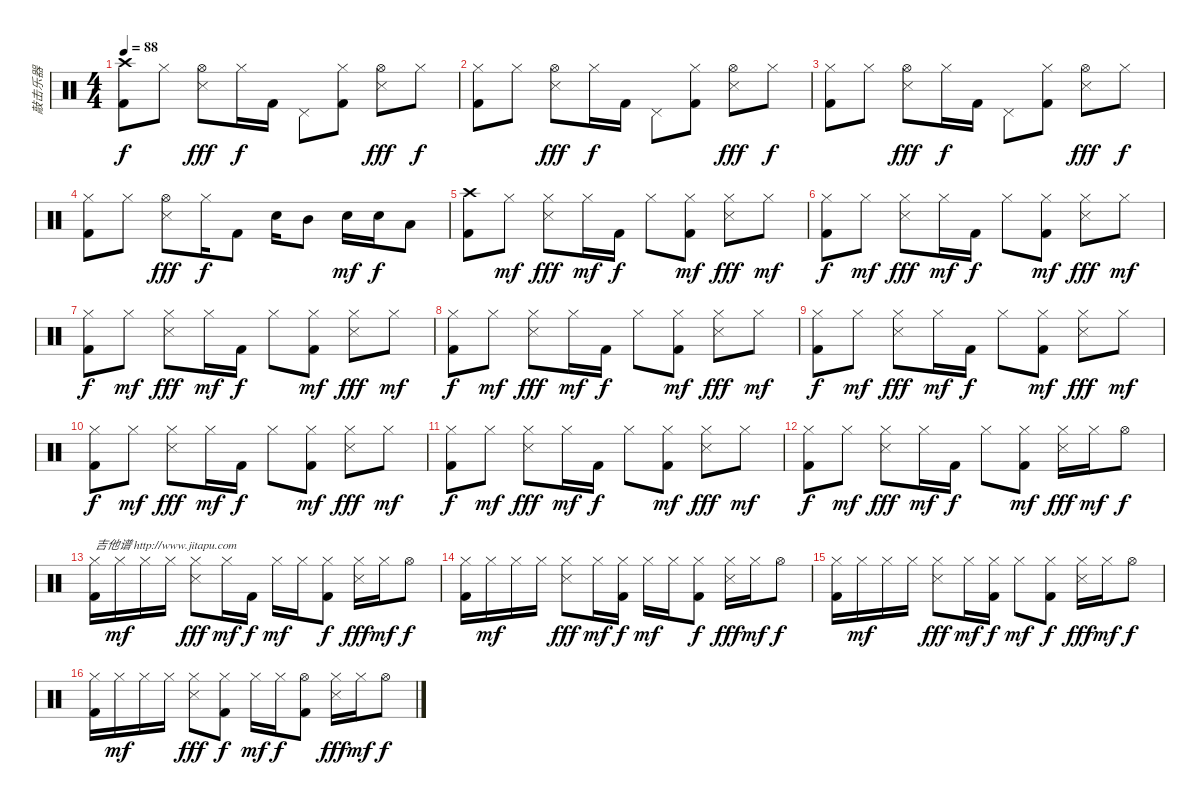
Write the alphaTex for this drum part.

\track ("敲击乐器" "敲击乐器") {instrument percussion}
\staff {score}
\articulation defaults
\ts (4 4)
\tempo 88
\clef neutral
\ks c
("Crash high (hit)" "Kick (hit) 2").8{dy f} "Hi-Hat (closed)".8 ("Hi-Hat (open)" "Snare (side stick) 3").8{dy fff} "Hi-Hat (closed)".16{dy f} "Kick (hit) 2".16 "Pedal Hi-Hat (hit)".8 ("Hi-Hat (closed)" "Kick (hit) 2").8 ("Hi-Hat (open)" "Snare (side stick) 3").8{dy fff} "Hi-Hat (closed)".8{dy f} |
("Hi-Hat (closed)" "Kick (hit) 2").8 "Hi-Hat (closed)".8 ("Hi-Hat (open)" "Snare (side stick) 3").8{dy fff} "Hi-Hat (closed)".16{dy f} "Kick (hit) 2".16 "Pedal Hi-Hat (hit)".8 ("Hi-Hat (closed)" "Kick (hit) 2").8 ("Hi-Hat (open)" "Snare (side stick) 3").8{dy fff} "Hi-Hat (closed)".8{dy f} |
("Hi-Hat (closed)" "Kick (hit) 2").8 "Hi-Hat (closed)".8 ("Hi-Hat (open)" "Snare (side stick) 3").8{dy fff} "Hi-Hat (closed)".16{dy f} "Kick (hit) 2".16 "Pedal Hi-Hat (hit)".8 ("Hi-Hat (closed)" "Kick (hit) 2").8 ("Hi-Hat (open)" "Snare (side stick) 3").8{dy fff} "Hi-Hat (closed)".8{dy f} |
("Hi-Hat (closed)" "Kick (hit) 2").8 "Hi-Hat (closed)".8 ("Hi-Hat (open)" "Snare (side stick) 3").8{dy fff} "Hi-Hat (closed)".16{dy f} "Kick (hit) 2".8 "Electric Snare (hit)".16 "Mid Tom (hit)".8 "Electric Snare (hit)".16{dy mf} "Electric Snare (hit)".16{dy f} "Low Tom (hit)".8 |
("Crash high (hit)" "Kick (hit) 2").8 "Hi-Hat (closed)".8{dy mf} ("Hi-Hat (closed)" "Snare (side stick) 3").8{dy fff} "Hi-Hat (closed)".16{dy mf} "Kick (hit) 2".16{dy f} "Hi-Hat (closed)".8 ("Hi-Hat (closed)" "Kick (hit) 2").8{dy mf} ("Hi-Hat (closed)" "Snare (side stick) 3").8{dy fff} "Hi-Hat (closed)".8{dy mf} |
("Hi-Hat (closed)" "Kick (hit) 2").8{dy f} "Hi-Hat (closed)".8{dy mf} ("Hi-Hat (closed)" "Snare (side stick) 3").8{dy fff} "Hi-Hat (closed)".16{dy mf} "Kick (hit) 2".16{dy f} "Hi-Hat (closed)".8 ("Hi-Hat (closed)" "Kick (hit) 2").8{dy mf} ("Hi-Hat (closed)" "Snare (side stick) 3").8{dy fff} "Hi-Hat (closed)".8{dy mf} |
("Hi-Hat (closed)" "Kick (hit) 2").8{dy f} "Hi-Hat (closed)".8{dy mf} ("Hi-Hat (closed)" "Snare (side stick) 3").8{dy fff} "Hi-Hat (closed)".16{dy mf} "Kick (hit) 2".16{dy f} "Hi-Hat (closed)".8 ("Hi-Hat (closed)" "Kick (hit) 2").8{dy mf} ("Hi-Hat (closed)" "Snare (side stick) 3").8{dy fff} "Hi-Hat (closed)".8{dy mf} |
("Hi-Hat (closed)" "Kick (hit) 2").8{dy f} "Hi-Hat (closed)".8{dy mf} ("Hi-Hat (closed)" "Snare (side stick) 3").8{dy fff} "Hi-Hat (closed)".16{dy mf} "Kick (hit) 2".16{dy f} "Hi-Hat (closed)".8 ("Hi-Hat (closed)" "Kick (hit) 2").8{dy mf} ("Hi-Hat (closed)" "Snare (side stick) 3").8{dy fff} "Hi-Hat (closed)".8{dy mf} |
("Hi-Hat (closed)" "Kick (hit) 2").8{dy f} "Hi-Hat (closed)".8{dy mf} ("Hi-Hat (closed)" "Snare (side stick) 3").8{dy fff} "Hi-Hat (closed)".16{dy mf} "Kick (hit) 2".16{dy f} "Hi-Hat (closed)".8 ("Hi-Hat (closed)" "Kick (hit) 2").8{dy mf} ("Hi-Hat (closed)" "Snare (side stick) 3").8{dy fff} "Hi-Hat (closed)".8{dy mf} |
("Hi-Hat (closed)" "Kick (hit) 2").8{dy f} "Hi-Hat (closed)".8{dy mf} ("Hi-Hat (closed)" "Snare (side stick) 3").8{dy fff} "Hi-Hat (closed)".16{dy mf} "Kick (hit) 2".16{dy f} "Hi-Hat (closed)".8 ("Hi-Hat (closed)" "Kick (hit) 2").8{dy mf} ("Hi-Hat (closed)" "Snare (side stick) 3").8{dy fff} "Hi-Hat (closed)".8{dy mf} |
("Hi-Hat (closed)" "Kick (hit) 2").8{dy f} "Hi-Hat (closed)".8{dy mf} ("Hi-Hat (closed)" "Snare (side stick) 3").8{dy fff} "Hi-Hat (closed)".16{dy mf} "Kick (hit) 2".16{dy f} "Hi-Hat (closed)".8 ("Hi-Hat (closed)" "Kick (hit) 2").8{dy mf} ("Hi-Hat (closed)" "Snare (side stick) 3").8{dy fff} "Hi-Hat (closed)".8{dy mf} |
("Hi-Hat (closed)" "Kick (hit) 2").8{dy f} "Hi-Hat (closed)".8{dy mf} ("Hi-Hat (closed)" "Snare (side stick) 3").8{dy fff} "Hi-Hat (closed)".16{dy mf} "Kick (hit) 2".16{dy f} "Hi-Hat (closed)".8 ("Hi-Hat (closed)" "Kick (hit) 2").8{dy mf} ("Hi-Hat (closed)" "Snare (side stick) 3").16{dy fff} "Hi-Hat (closed)".16{dy mf} "Hi-Hat (open)".8{dy f} |
("Hi-Hat (closed)" "Kick (hit) 2").16{txt "吉他谱 http://www.jitapu.com"} "Hi-Hat (closed)".16{dy mf} "Hi-Hat (closed)".16 "Hi-Hat (closed)".16 ("Hi-Hat (closed)" "Snare (side stick) 3").8{dy fff} "Hi-Hat (closed)".16{dy mf} "Kick (hit) 2".16{dy f} "Hi-Hat (closed)".16{dy mf} "Hi-Hat (closed)".16 ("Hi-Hat (closed)" "Kick (hit) 2").8{dy f} ("Hi-Hat (closed)" "Snare (side stick) 3").16{dy fff} "Hi-Hat (closed)".16{dy mf} "Hi-Hat (open)".8{dy f} |
("Hi-Hat (closed)" "Kick (hit) 2").16 "Hi-Hat (closed)".16{dy mf} "Hi-Hat (closed)".16 "Hi-Hat (closed)".16 ("Hi-Hat (closed)" "Snare (side stick) 3").8{dy fff} "Hi-Hat (closed)".16{dy mf} ("Hi-Hat (closed)" "Kick (hit) 2").16{dy f} "Hi-Hat (closed)".16{dy mf} "Hi-Hat (closed)".16 ("Hi-Hat (closed)" "Kick (hit) 2").8{dy f} ("Hi-Hat (closed)" "Snare (side stick) 3").16{dy fff} "Hi-Hat (closed)".16{dy mf} "Hi-Hat (open)".8{dy f} |
("Hi-Hat (closed)" "Kick (hit) 2").16 "Hi-Hat (closed)".16{dy mf} "Hi-Hat (closed)".16 "Hi-Hat (closed)".16 ("Hi-Hat (closed)" "Snare (side stick) 3").8{dy fff} "Hi-Hat (closed)".16{dy mf} ("Hi-Hat (closed)" "Kick (hit) 2").16{dy f} "Hi-Hat (closed)".8{dy mf} ("Hi-Hat (closed)" "Kick (hit) 2").8{dy f} ("Hi-Hat (closed)" "Snare (side stick) 3").16{dy fff} "Hi-Hat (closed)".16{dy mf} "Hi-Hat (open)".8{dy f} |
("Hi-Hat (closed)" "Kick (hit) 2").16 "Hi-Hat (closed)".16{dy mf} "Hi-Hat (closed)".16 "Hi-Hat (closed)".16 ("Hi-Hat (closed)" "Snare (side stick) 3").8{dy fff} ("Hi-Hat (closed)" "Kick (hit) 2").8{dy f} "Hi-Hat (closed)".16{dy mf} "Hi-Hat (closed)".16{dy f} ("Hi-Hat (open)" "Kick (hit) 2").8 ("Hi-Hat (closed)" "Snare (side stick) 3").16{dy fff} "Hi-Hat (closed)".16{dy mf} "Hi-Hat (open)".8{dy f}
